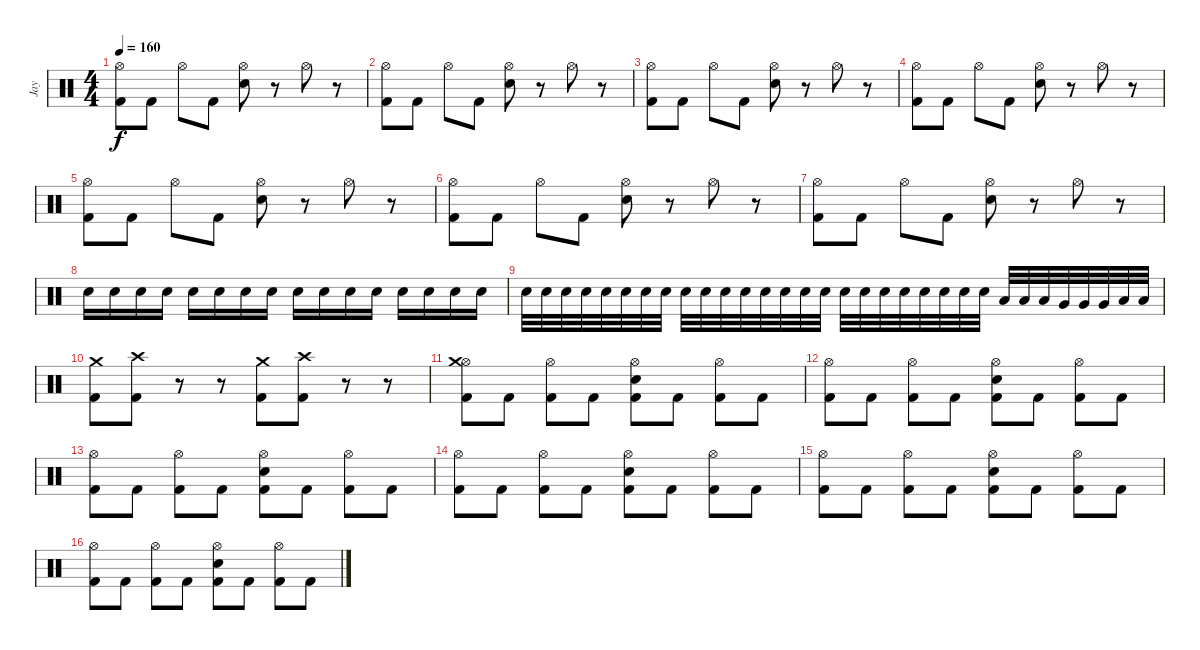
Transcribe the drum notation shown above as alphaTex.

\track ("Jay" "Jay") {instrument percussion}
\staff {score}
\articulation defaults
\ts (4 4)
\tempo 160
\clef neutral
\ks c
("Hi-Hat (open)" "Kick (hit) 2").8{dy f} "Kick (hit) 2".8 "Hi-Hat (open)".8 "Kick (hit) 2".8 ("Hi-Hat (open)" "Electric Snare (hit)").8 r.8 "Hi-Hat (open)".8 r.8 |
("Hi-Hat (open)" "Kick (hit) 2").8 "Kick (hit) 2".8 "Hi-Hat (open)".8 "Kick (hit) 2".8 ("Hi-Hat (open)" "Electric Snare (hit)").8 r.8 "Hi-Hat (open)".8 r.8 |
("Hi-Hat (open)" "Kick (hit) 2").8 "Kick (hit) 2".8 "Hi-Hat (open)".8 "Kick (hit) 2".8 ("Hi-Hat (open)" "Electric Snare (hit)").8 r.8 "Hi-Hat (open)".8 r.8 |
("Hi-Hat (open)" "Kick (hit) 2").8 "Kick (hit) 2".8 "Hi-Hat (open)".8 "Kick (hit) 2".8 ("Hi-Hat (open)" "Electric Snare (hit)").8 r.8 "Hi-Hat (open)".8 r.8 |
("Hi-Hat (open)" "Kick (hit) 2").8 "Kick (hit) 2".8 "Hi-Hat (open)".8 "Kick (hit) 2".8 ("Hi-Hat (open)" "Electric Snare (hit)").8 r.8 "Hi-Hat (open)".8 r.8 |
("Hi-Hat (open)" "Kick (hit) 2").8 "Kick (hit) 2".8 "Hi-Hat (open)".8 "Kick (hit) 2".8 ("Hi-Hat (open)" "Electric Snare (hit)").8 r.8 "Hi-Hat (open)".8 r.8 |
("Hi-Hat (open)" "Kick (hit) 2").8 "Kick (hit) 2".8 "Hi-Hat (open)".8 "Kick (hit) 2".8 ("Hi-Hat (open)" "Electric Snare (hit)").8 r.8 "Hi-Hat (open)".8 r.8 |
"Electric Snare (hit)".16 "Electric Snare (hit)".16 "Electric Snare (hit)".16 "Electric Snare (hit)".16 "Electric Snare (hit)".16 "Electric Snare (hit)".16 "Electric Snare (hit)".16 "Electric Snare (hit)".16 "Electric Snare (hit)".16 "Electric Snare (hit)".16 "Electric Snare (hit)".16 "Electric Snare (hit)".16 "Electric Snare (hit)".16 "Electric Snare (hit)".16 "Electric Snare (hit)".16 "Electric Snare (hit)".16 |
"Electric Snare (hit)".32 "Electric Snare (hit)".32 "Electric Snare (hit)".32 "Electric Snare (hit)".32 "Electric Snare (hit)".32 "Electric Snare (hit)".32 "Electric Snare (hit)".32 "Electric Snare (hit)".32 "Electric Snare (hit)".32 "Electric Snare (hit)".32 "Electric Snare (hit)".32 "Electric Snare (hit)".32 "Electric Snare (hit)".32 "Electric Snare (hit)".32 "Electric Snare (hit)".32 "Electric Snare (hit)".32 "Electric Snare (hit)".32 "Electric Snare (hit)".32 "Electric Snare (hit)".32 "Electric Snare (hit)".32 "Electric Snare (hit)".32 "Electric Snare (hit)".32 "Electric Snare (hit)".32 "Electric Snare (hit)".32 "Low Floor Tom (hit)".32 "Low Floor Tom (hit)".32 "Low Floor Tom (hit)".32 "Very Low Tom (hit)".32 "Very Low Tom (hit)".32 "Very Low Tom (hit)".32 "Low Tom (hit)".32 "Low Tom (hit)".32 |
("Crash medium (hit)" "Kick (hit) 2").8 ("Crash high (hit)" "Kick (hit) 2").8 r.8 r.8 ("Crash medium (hit)" "Kick (hit) 2").8 ("Crash high (hit)" "Kick (hit) 2").8 r.8 r.8 |
("Hi-Hat (open)" "Crash medium (hit)" "Kick (hit) 2").8 "Kick (hit) 2".8 ("Hi-Hat (open)" "Kick (hit) 2").8 "Kick (hit) 2".8 ("Hi-Hat (open)" "Electric Snare (hit)" "Kick (hit) 2").8 "Kick (hit) 2".8 ("Hi-Hat (open)" "Kick (hit) 2").8 "Kick (hit) 2".8 |
("Hi-Hat (open)" "Kick (hit) 2").8 "Kick (hit) 2".8 ("Hi-Hat (open)" "Kick (hit) 2").8 "Kick (hit) 2".8 ("Hi-Hat (open)" "Electric Snare (hit)" "Kick (hit) 2").8 "Kick (hit) 2".8 ("Hi-Hat (open)" "Kick (hit) 2").8 "Kick (hit) 2".8 |
("Hi-Hat (open)" "Kick (hit) 2").8 "Kick (hit) 2".8 ("Hi-Hat (open)" "Kick (hit) 2").8 "Kick (hit) 2".8 ("Hi-Hat (open)" "Electric Snare (hit)" "Kick (hit) 2").8 "Kick (hit) 2".8 ("Hi-Hat (open)" "Kick (hit) 2").8 "Kick (hit) 2".8 |
("Hi-Hat (open)" "Kick (hit) 2").8 "Kick (hit) 2".8 ("Hi-Hat (open)" "Kick (hit) 2").8 "Kick (hit) 2".8 ("Hi-Hat (open)" "Electric Snare (hit)" "Kick (hit) 2").8 "Kick (hit) 2".8 ("Hi-Hat (open)" "Kick (hit) 2").8 "Kick (hit) 2".8 |
("Hi-Hat (open)" "Kick (hit) 2").8 "Kick (hit) 2".8 ("Hi-Hat (open)" "Kick (hit) 2").8 "Kick (hit) 2".8 ("Hi-Hat (open)" "Electric Snare (hit)" "Kick (hit) 2").8 "Kick (hit) 2".8 ("Hi-Hat (open)" "Kick (hit) 2").8 "Kick (hit) 2".8 |
("Hi-Hat (open)" "Kick (hit) 2").8 "Kick (hit) 2".8 ("Hi-Hat (open)" "Kick (hit) 2").8 "Kick (hit) 2".8 ("Hi-Hat (open)" "Electric Snare (hit)" "Kick (hit) 2").8 "Kick (hit) 2".8 ("Hi-Hat (open)" "Kick (hit) 2").8 "Kick (hit) 2".8
